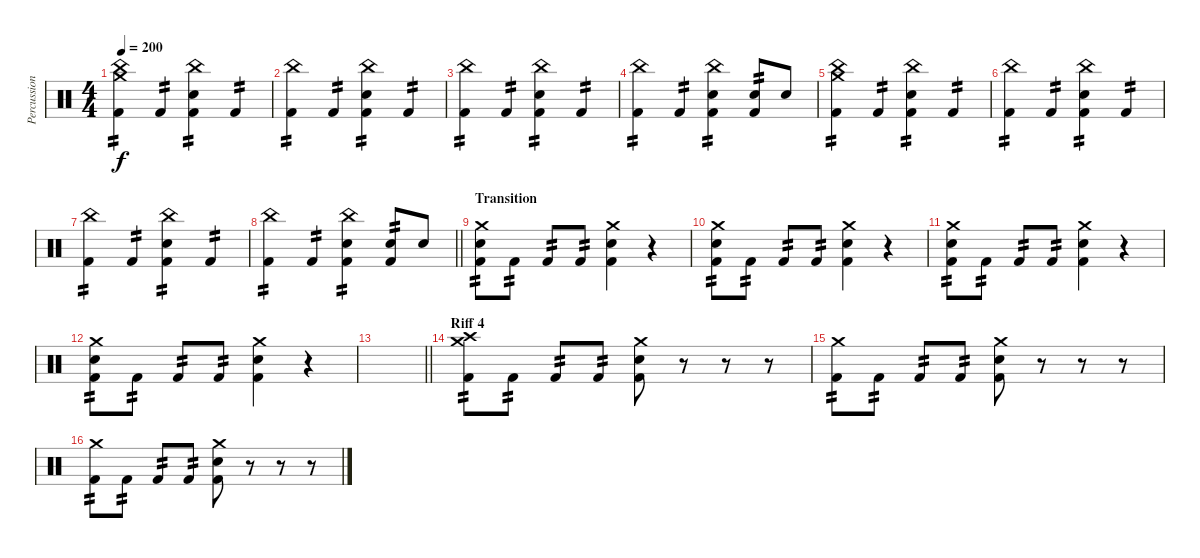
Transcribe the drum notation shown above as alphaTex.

\track ("Percussion" "Percussion") {instrument percussion}
\staff {score}
\articulation defaults
\ts (4 4)
\tempo 200
\clef neutral
\ks c
("Crash medium (hit)" "China (hit)" "Kick (hit) 2").4{tp 2 dy f} "Kick (hit) 2".4{tp 2} ("China (hit)" "Electric Snare (hit)" "Kick (hit) 2").4{tp 2} "Kick (hit) 2".4{tp 2} |
("China (hit)" "Kick (hit) 2").4{tp 2} "Kick (hit) 2".4{tp 2} ("China (hit)" "Electric Snare (hit)" "Kick (hit) 2").4{tp 2} "Kick (hit) 2".4{tp 2} |
("China (hit)" "Kick (hit) 2").4{tp 2} "Kick (hit) 2".4{tp 2} ("China (hit)" "Electric Snare (hit)" "Kick (hit) 2").4{tp 2} "Kick (hit) 2".4{tp 2} |
("China (hit)" "Kick (hit) 2").4{tp 2} "Kick (hit) 2".4{tp 2} ("China (hit)" "Electric Snare (hit)" "Kick (hit) 2").4{tp 2} ("Electric Snare (hit)" "Kick (hit) 2").8{tp 2} "Electric Snare (hit)".8 |
("Crash medium (hit)" "China (hit)" "Kick (hit) 2").4{tp 2} "Kick (hit) 2".4{tp 2} ("China (hit)" "Electric Snare (hit)" "Kick (hit) 2").4{tp 2} "Kick (hit) 2".4{tp 2} |
("China (hit)" "Kick (hit) 2").4{tp 2} "Kick (hit) 2".4{tp 2} ("China (hit)" "Electric Snare (hit)" "Kick (hit) 2").4{tp 2} "Kick (hit) 2".4{tp 2} |
("China (hit)" "Kick (hit) 2").4{tp 2} "Kick (hit) 2".4{tp 2} ("China (hit)" "Electric Snare (hit)" "Kick (hit) 2").4{tp 2} "Kick (hit) 2".4{tp 2} |
\barLineRight lightlight
("China (hit)" "Kick (hit) 2").4{tp 2} "Kick (hit) 2".4{tp 2} ("China (hit)" "Electric Snare (hit)" "Kick (hit) 2").4{tp 2} ("Electric Snare (hit)" "Kick (hit) 2").8{tp 2} "Electric Snare (hit)".8 |
\section ("" "Transition")
("Crash medium (hit)" "Electric Snare (hit)" "Kick (hit) 2").8{tp 2} "Kick (hit) 2".8{tp 2} "Kick (hit) 2".8{tp 2} "Kick (hit) 2".8{tp 2} ("Crash medium (hit)" "Electric Snare (hit)" "Kick (hit) 2").4 r.4 |
("Crash medium (hit)" "Electric Snare (hit)" "Kick (hit) 2").8{tp 2} "Kick (hit) 2".8{tp 2} "Kick (hit) 2".8{tp 2} "Kick (hit) 2".8{tp 2} ("Crash medium (hit)" "Electric Snare (hit)" "Kick (hit) 2").4 r.4 |
("Crash medium (hit)" "Electric Snare (hit)" "Kick (hit) 2").8{tp 2} "Kick (hit) 2".8{tp 2} "Kick (hit) 2".8{tp 2} "Kick (hit) 2".8{tp 2} ("Crash medium (hit)" "Electric Snare (hit)" "Kick (hit) 2").4 r.4 |
("Crash medium (hit)" "Electric Snare (hit)" "Kick (hit) 2").8{tp 2} "Kick (hit) 2".8{tp 2} "Kick (hit) 2".8{tp 2} "Kick (hit) 2".8{tp 2} ("Crash medium (hit)" "Electric Snare (hit)" "Kick (hit) 2").4 r.4 |
\barLineRight lightlight
|
\section ("" "Riff 4")
("Crash medium (hit)" "Crash high (hit)" "Kick (hit) 2").8{tp 2} "Kick (hit) 2".8{tp 2} "Kick (hit) 2".8{tp 2} "Kick (hit) 2".8{tp 2} ("Crash medium (hit)" "Electric Snare (hit)" "Kick (hit) 2").8 r.8 r.8 r.8 |
("Crash medium (hit)" "Kick (hit) 2").8{tp 2} "Kick (hit) 2".8{tp 2} "Kick (hit) 2".8{tp 2} "Kick (hit) 2".8{tp 2} ("Crash medium (hit)" "Electric Snare (hit)" "Kick (hit) 2").8 r.8 r.8 r.8 |
("Crash medium (hit)" "Kick (hit) 2").8{tp 2} "Kick (hit) 2".8{tp 2} "Kick (hit) 2".8{tp 2} "Kick (hit) 2".8{tp 2} ("Crash medium (hit)" "Electric Snare (hit)" "Kick (hit) 2").8 r.8 r.8 r.8
